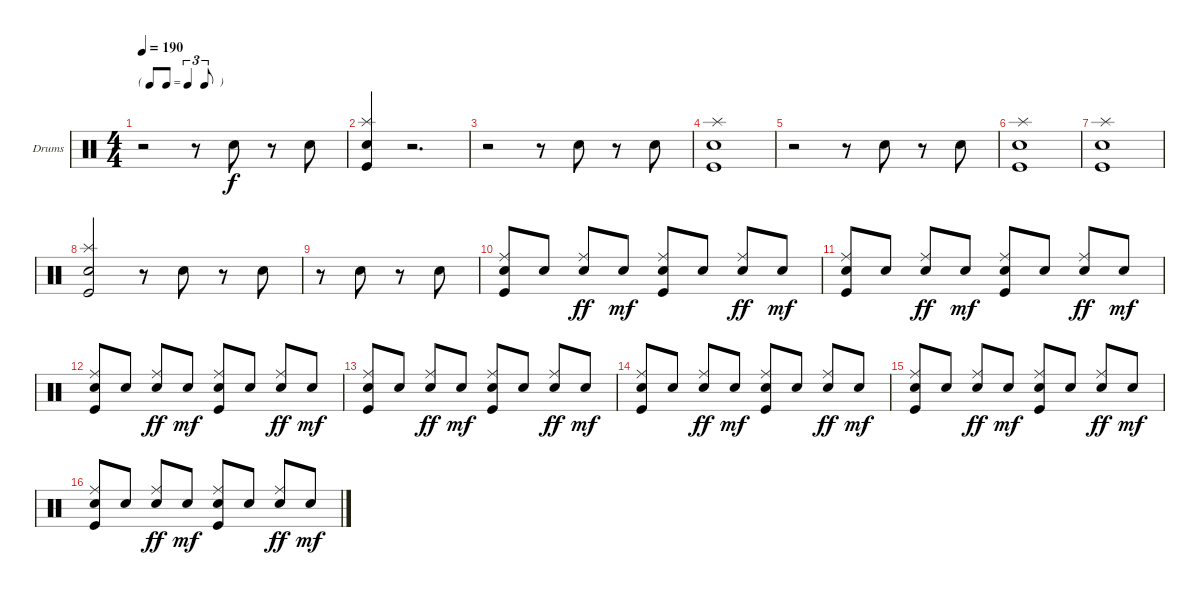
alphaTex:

\defaultSystemsLayout 4
\bracketExtendMode groupsimilarinstruments
\firstSystemTrackNameOrientation horizontal
\otherSystemsTrackNameOrientation horizontal
\track ("Drumkit" "Drums") {instrument percussion}
\staff {score}
\articulation defaults
\ts (4 4)
\tf triplet8th
\tempo 190
\clef neutral
\scale
0.472222
\ks c
r.2{dy f} r.8 "Snare (hit) 2".8 r.8 "Snare (hit) 2".8 |
\scale
0.263889 ("Snare (hit) 2" "Splash (hit)" "Kick (hit)").4 r.2{d} |
\scale
0.263889 r.2 r.8 "Snare (hit) 2".8 r.8 "Snare (hit) 2".8 |
\scale
0.333333 ("Snare (hit) 2" "Splash (hit)" "Kick (hit)").1 |
\scale
0.333333 r.2 r.8 "Snare (hit) 2".8 r.8 "Snare (hit) 2".8 |
\scale
0.333333 ("Snare (hit) 2" "Splash (hit)" "Kick (hit)").1 |
\scale
0.333333 ("Snare (hit) 2" "Splash (hit)" "Kick (hit)").1 |
\scale
0.333333 ("Snare (hit) 2" "Splash (hit)" "Kick (hit)").2 r.8 "Snare (hit) 2".8 r.8 "Snare (hit) 2".8 |
\scale
0.333333 r.8 "Snare (hit) 2".8 r.8 "Snare (hit) 2".8 |
\scale
0.333333 ("Kick (hit)" "Snare (hit) 2" "Ride (middle)").8{beam invert} "Snare (hit) 2".8 ("Snare (hit) 2" "Ride (middle)").8{dy ff beam invert} "Snare (hit) 2".8{dy mf} ("Kick (hit)" "Snare (hit) 2" "Ride (middle)").8{beam invert} "Snare (hit) 2".8 ("Snare (hit) 2" "Ride (middle)").8{dy ff beam invert} "Snare (hit) 2".8{dy mf} |
\scale
0.333333 ("Kick (hit)" "Snare (hit) 2" "Ride (middle)").8{beam invert} "Snare (hit) 2".8 ("Snare (hit) 2" "Ride (middle)").8{dy ff beam invert} "Snare (hit) 2".8{dy mf} ("Kick (hit)" "Snare (hit) 2" "Ride (middle)").8{beam invert} "Snare (hit) 2".8 ("Snare (hit) 2" "Ride (middle)").8{dy ff beam invert} "Snare (hit) 2".8{dy mf} |
\scale
0.333333 ("Kick (hit)" "Snare (hit) 2" "Ride (middle)").8{beam invert} "Snare (hit) 2".8 ("Snare (hit) 2" "Ride (middle)").8{dy ff beam invert} "Snare (hit) 2".8{dy mf} ("Kick (hit)" "Snare (hit) 2" "Ride (middle)").8{beam invert} "Snare (hit) 2".8 ("Snare (hit) 2" "Ride (middle)").8{dy ff beam invert} "Snare (hit) 2".8{dy mf} |
\scale
0.333333 ("Kick (hit)" "Snare (hit) 2" "Ride (middle)").8{beam invert} "Snare (hit) 2".8 ("Snare (hit) 2" "Ride (middle)").8{dy ff beam invert} "Snare (hit) 2".8{dy mf} ("Kick (hit)" "Snare (hit) 2" "Ride (middle)").8{beam invert} "Snare (hit) 2".8 ("Snare (hit) 2" "Ride (middle)").8{dy ff beam invert} "Snare (hit) 2".8{dy mf} |
\scale
0.333333 ("Kick (hit)" "Snare (hit) 2" "Ride (middle)").8{beam invert} "Snare (hit) 2".8 ("Snare (hit) 2" "Ride (middle)").8{dy ff beam invert} "Snare (hit) 2".8{dy mf} ("Kick (hit)" "Snare (hit) 2" "Ride (middle)").8{beam invert} "Snare (hit) 2".8 ("Snare (hit) 2" "Ride (middle)").8{dy ff beam invert} "Snare (hit) 2".8{dy mf} |
\scale
0.333333 ("Kick (hit)" "Snare (hit) 2" "Ride (middle)").8{beam invert} "Snare (hit) 2".8 ("Snare (hit) 2" "Ride (middle)").8{dy ff beam invert} "Snare (hit) 2".8{dy mf} ("Kick (hit)" "Snare (hit) 2" "Ride (middle)").8{beam invert} "Snare (hit) 2".8 ("Snare (hit) 2" "Ride (middle)").8{dy ff beam invert} "Snare (hit) 2".8{dy mf} |
\scale
0.333333 ("Kick (hit)" "Snare (hit) 2" "Ride (middle)").8{beam invert} "Snare (hit) 2".8 ("Snare (hit) 2" "Ride (middle)").8{dy ff beam invert} "Snare (hit) 2".8{dy mf} ("Kick (hit)" "Snare (hit) 2" "Ride (middle)").8{beam invert} "Snare (hit) 2".8 ("Snare (hit) 2" "Ride (middle)").8{dy ff beam invert} "Snare (hit) 2".8{dy mf}
